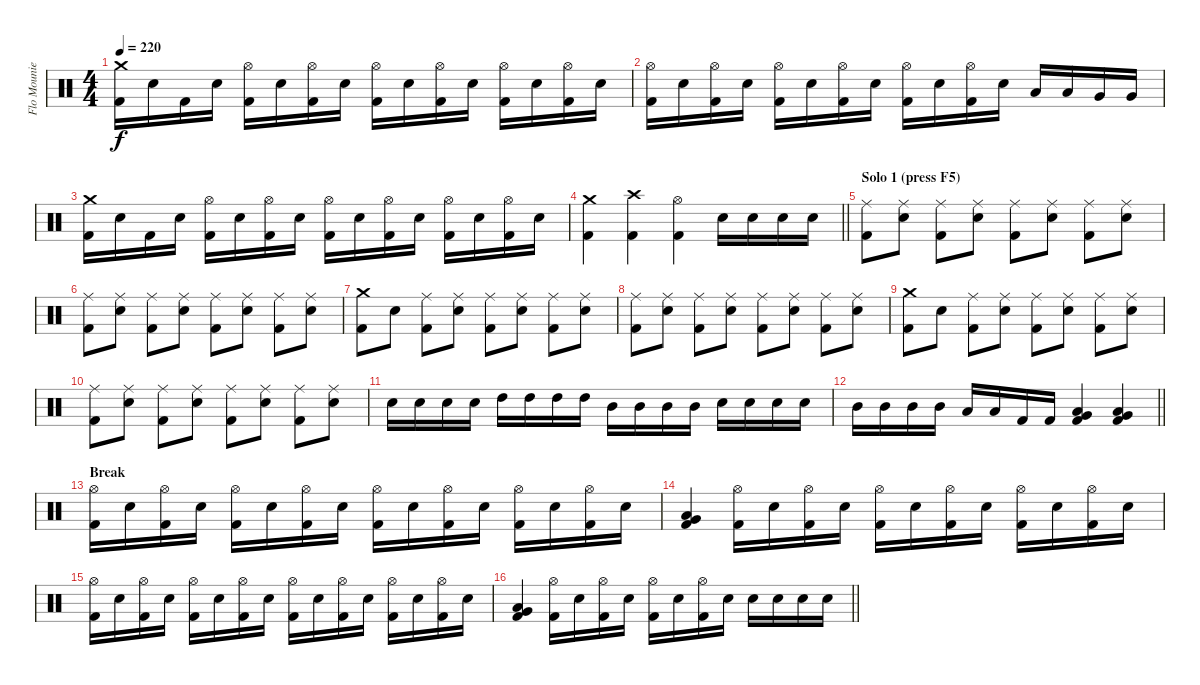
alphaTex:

\track ("Flo Mounier" "Flo Mounie") {instrument percussion}
\staff {score}
\articulation defaults
\ts (4 4)
\tempo 220
\clef neutral
\ks c
("Crash medium (hit)" "Kick (hit) 2").16{dy f} "Electric Snare (hit)".16 "Kick (hit) 2".16 "Electric Snare (hit)".16 ("Hi-Hat (open)" "Kick (hit) 2").16 "Electric Snare (hit)".16 ("Hi-Hat (open)" "Kick (hit) 2").16 "Electric Snare (hit)".16 ("Hi-Hat (open)" "Kick (hit) 2").16 "Electric Snare (hit)".16 ("Hi-Hat (open)" "Kick (hit) 2").16 "Electric Snare (hit)".16 ("Hi-Hat (open)" "Kick (hit) 2").16 "Electric Snare (hit)".16 ("Hi-Hat (open)" "Kick (hit) 2").16 "Electric Snare (hit)".16 |
("Hi-Hat (open)" "Kick (hit) 2").16 "Electric Snare (hit)".16 ("Hi-Hat (open)" "Kick (hit) 2").16 "Electric Snare (hit)".16 ("Hi-Hat (open)" "Kick (hit) 2").16 "Electric Snare (hit)".16 ("Hi-Hat (open)" "Kick (hit) 2").16 "Electric Snare (hit)".16 ("Hi-Hat (open)" "Kick (hit) 2").16 "Electric Snare (hit)".16 ("Hi-Hat (open)" "Kick (hit) 2").16 "Electric Snare (hit)".16 "Low Tom (hit)".16 "Low Tom (hit)".16 "Very Low Tom (hit)".16 "Very Low Tom (hit)".16 |
("Crash medium (hit)" "Kick (hit) 2").16 "Electric Snare (hit)".16 "Kick (hit) 2".16 "Electric Snare (hit)".16 ("Hi-Hat (open)" "Kick (hit) 2").16 "Electric Snare (hit)".16 ("Hi-Hat (open)" "Kick (hit) 2").16 "Electric Snare (hit)".16 ("Hi-Hat (open)" "Kick (hit) 2").16 "Electric Snare (hit)".16 ("Hi-Hat (open)" "Kick (hit) 2").16 "Electric Snare (hit)".16 ("Hi-Hat (open)" "Kick (hit) 2").16 "Electric Snare (hit)".16 ("Hi-Hat (open)" "Kick (hit) 2").16 "Electric Snare (hit)".16 |
\barLineRight lightlight
("Crash medium (hit)" "Kick (hit) 2").4 ("Crash high (hit)" "Kick (hit) 2").4 ("Hi-Hat (open)" "Kick (hit) 2").4 "Electric Snare (hit)".16 "Electric Snare (hit)".16 "Electric Snare (hit)".16 "Electric Snare (hit)".16 |
\section ("" "Solo 1 (press F5)")
("Ride (middle)" "Kick (hit) 2").8 ("Ride (middle)" "Electric Snare (hit)").8 ("Ride (middle)" "Kick (hit) 2").8 ("Ride (middle)" "Electric Snare (hit)").8 ("Ride (middle)" "Kick (hit) 2").8 ("Ride (middle)" "Electric Snare (hit)").8 ("Ride (middle)" "Kick (hit) 2").8 ("Ride (middle)" "Electric Snare (hit)").8 |
("Ride (middle)" "Kick (hit) 2").8 ("Ride (middle)" "Electric Snare (hit)").8 ("Ride (middle)" "Kick (hit) 2").8 ("Ride (middle)" "Electric Snare (hit)").8 ("Ride (middle)" "Kick (hit) 2").8 ("Ride (middle)" "Electric Snare (hit)").8 ("Ride (middle)" "Kick (hit) 2").8 ("Ride (middle)" "Electric Snare (hit)").8 |
("Crash medium (hit)" "Kick (hit) 2").8 "Electric Snare (hit)".8 ("Ride (middle)" "Kick (hit) 2").8 ("Ride (middle)" "Electric Snare (hit)").8 ("Ride (middle)" "Kick (hit) 2").8 ("Ride (middle)" "Electric Snare (hit)").8 ("Ride (middle)" "Kick (hit) 2").8 ("Ride (middle)" "Electric Snare (hit)").8 |
("Ride (middle)" "Kick (hit) 2").8 ("Ride (middle)" "Electric Snare (hit)").8 ("Ride (middle)" "Kick (hit) 2").8 ("Ride (middle)" "Electric Snare (hit)").8 ("Ride (middle)" "Kick (hit) 2").8 ("Ride (middle)" "Electric Snare (hit)").8 ("Ride (middle)" "Kick (hit) 2").8 ("Ride (middle)" "Electric Snare (hit)").8 |
("Crash medium (hit)" "Kick (hit) 2").8 "Electric Snare (hit)".8 ("Ride (middle)" "Kick (hit) 2").8 ("Ride (middle)" "Electric Snare (hit)").8 ("Ride (middle)" "Kick (hit) 2").8 ("Ride (middle)" "Electric Snare (hit)").8 ("Ride (middle)" "Kick (hit) 2").8 ("Ride (middle)" "Electric Snare (hit)").8 |
("Ride (middle)" "Kick (hit) 2").8 ("Ride (middle)" "Electric Snare (hit)").8 ("Ride (middle)" "Kick (hit) 2").8 ("Ride (middle)" "Electric Snare (hit)").8 ("Ride (middle)" "Kick (hit) 2").8 ("Ride (middle)" "Electric Snare (hit)").8 ("Ride (middle)" "Kick (hit) 2").8 ("Ride (middle)" "Electric Snare (hit)").8 |
"Electric Snare (hit)".16 "Electric Snare (hit)".16 "Electric Snare (hit)".16 "Electric Snare (hit)".16 "High Tom (hit)".16 "High Tom (hit)".16 "High Tom (hit)".16 "High Tom (hit)".16 "Mid Tom (hit)".16 "Mid Tom (hit)".16 "Mid Tom (hit)".16 "Mid Tom (hit)".16 "Electric Snare (hit)".16 "Electric Snare (hit)".16 "Electric Snare (hit)".16 "Electric Snare (hit)".16 |
\barLineRight lightlight "Mid Tom (hit)".16 "Mid Tom (hit)".16 "Mid Tom (hit)".16 "Mid Tom (hit)".16 "Low Tom (hit)".16 "Low Tom (hit)".16 "Kick (hit) 2".16 "Kick (hit) 2".16
("Low Tom (hit)" "Very Low Tom (hit)" "Kick (hit) 2").4 ("Low Tom (hit)" "Very Low Tom (hit)" "Kick (hit) 2").4 |
\section ("" "Break")
("Hi-Hat (open)" "Kick (hit) 2").16 "Electric Snare (hit)".16 ("Hi-Hat (open)" "Kick (hit) 2").16 "Electric Snare (hit)".16 ("Hi-Hat (open)" "Kick (hit) 2").16 "Electric Snare (hit)".16 ("Hi-Hat (open)" "Kick (hit) 2").16 "Electric Snare (hit)".16 ("Hi-Hat (open)" "Kick (hit) 2").16 "Electric Snare (hit)".16 ("Hi-Hat (open)" "Kick (hit) 2").16 "Electric Snare (hit)".16 ("Hi-Hat (open)" "Kick (hit) 2").16 "Electric Snare (hit)".16 ("Hi-Hat (open)" "Kick (hit) 2").16 "Electric Snare (hit)".16 |
("Very Low Tom (hit)" "Low Tom (hit)" "Kick (hit) 2").4 ("Hi-Hat (open)" "Kick (hit) 2").16 "Electric Snare (hit)".16 ("Hi-Hat (open)" "Kick (hit) 2").16 "Electric Snare (hit)".16 ("Hi-Hat (open)" "Kick (hit) 2").16 "Electric Snare (hit)".16 ("Hi-Hat (open)" "Kick (hit) 2").16 "Electric Snare (hit)".16 ("Hi-Hat (open)" "Kick (hit) 2").16 "Electric Snare (hit)".16 ("Hi-Hat (open)" "Kick (hit) 2").16 "Electric Snare (hit)".16 |
("Hi-Hat (open)" "Kick (hit) 2").16 "Electric Snare (hit)".16 ("Hi-Hat (open)" "Kick (hit) 2").16 "Electric Snare (hit)".16 ("Hi-Hat (open)" "Kick (hit) 2").16 "Electric Snare (hit)".16 ("Hi-Hat (open)" "Kick (hit) 2").16 "Electric Snare (hit)".16 ("Hi-Hat (open)" "Kick (hit) 2").16 "Electric Snare (hit)".16 ("Hi-Hat (open)" "Kick (hit) 2").16 "Electric Snare (hit)".16 ("Hi-Hat (open)" "Kick (hit) 2").16 "Electric Snare (hit)".16 ("Hi-Hat (open)" "Kick (hit) 2").16 "Electric Snare (hit)".16 |
\barLineRight lightlight
("Very Low Tom (hit)" "Low Tom (hit)" "Kick (hit) 2").4 ("Hi-Hat (open)" "Kick (hit) 2").16 "Electric Snare (hit)".16 ("Hi-Hat (open)" "Kick (hit) 2").16 "Electric Snare (hit)".16 ("Hi-Hat (open)" "Kick (hit) 2").16 "Electric Snare (hit)".16 ("Hi-Hat (open)" "Kick (hit) 2").16 "Electric Snare (hit)".16 "Electric Snare (hit)".16 "Electric Snare (hit)".16 "Electric Snare (hit)".16 "Electric Snare (hit)".16
